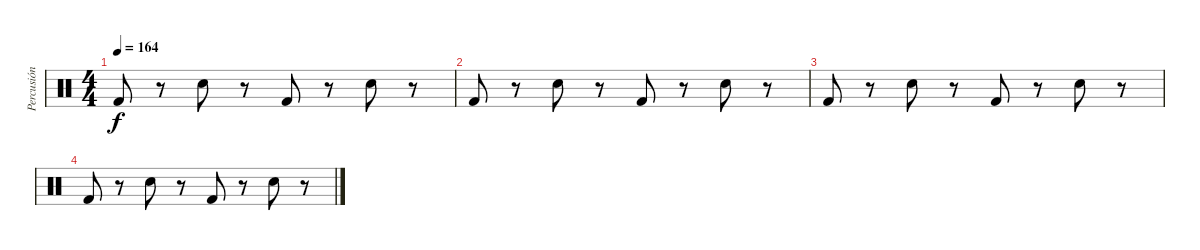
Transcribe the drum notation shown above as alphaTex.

\track ("Percusión" "Percusión") {instrument percussion}
\staff {score}
\articulation defaults
\ts (4 4)
\tempo 164
\clef neutral
\ks c "Kick (hit) 2".8{dy f}
r.8 "Electric Snare (hit)".8 r.8 "Kick (hit) 2".8 r.8 "Electric Snare (hit)".8 r.8 |
"Kick (hit) 2".8 r.8 "Electric Snare (hit)".8 r.8 "Kick (hit) 2".8 r.8 "Electric Snare (hit)".8 r.8 |
"Kick (hit) 2".8 r.8 "Electric Snare (hit)".8 r.8 "Kick (hit) 2".8 r.8 "Electric Snare (hit)".8 r.8 |
"Kick (hit) 2".8 r.8 "Electric Snare (hit)".8 r.8 "Kick (hit) 2".8 r.8 "Electric Snare (hit)".8 r.8
